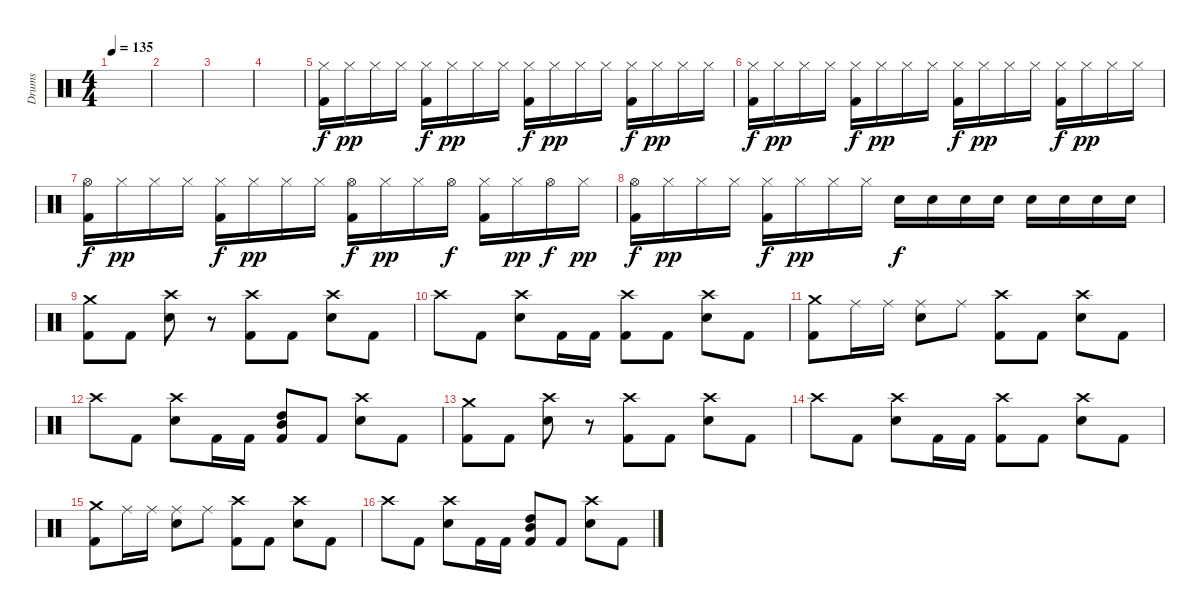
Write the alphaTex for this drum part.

\track ("Drums" "Drums") {instrument percussion}
\staff {score}
\articulation defaults
\ts (4 4)
\tempo 135
\clef neutral
\ks c
|
|
|
|
("Hi-Hat (closed)" "Kick (hit) 2").16 "Hi-Hat (closed)".16{dy pp} "Hi-Hat (closed)".16 "Hi-Hat (closed)".16 ("Hi-Hat (closed)" "Kick (hit) 2").16{dy f} "Hi-Hat (closed)".16{dy pp} "Hi-Hat (closed)".16 "Hi-Hat (closed)".16 ("Hi-Hat (closed)" "Kick (hit) 2").16{dy f} "Hi-Hat (closed)".16{dy pp} "Hi-Hat (closed)".16 "Hi-Hat (closed)".16 ("Hi-Hat (closed)" "Kick (hit) 2").16{dy f} "Hi-Hat (closed)".16{dy pp} "Hi-Hat (closed)".16 "Hi-Hat (closed)".16 |
("Hi-Hat (closed)" "Kick (hit) 2").16{dy f} "Hi-Hat (closed)".16{dy pp} "Hi-Hat (closed)".16 "Hi-Hat (closed)".16 ("Hi-Hat (closed)" "Kick (hit) 2").16{dy f} "Hi-Hat (closed)".16{dy pp} "Hi-Hat (closed)".16 "Hi-Hat (closed)".16 ("Hi-Hat (closed)" "Kick (hit) 2").16{dy f} "Hi-Hat (closed)".16{dy pp} "Hi-Hat (closed)".16 "Hi-Hat (closed)".16 ("Hi-Hat (closed)" "Kick (hit) 2").16{dy f} "Hi-Hat (closed)".16{dy pp} "Hi-Hat (closed)".16 "Hi-Hat (closed)".16 |
("Hi-Hat (open)" "Kick (hit) 2").16{dy f} "Hi-Hat (closed)".16{dy pp} "Hi-Hat (closed)".16 "Hi-Hat (closed)".16 ("Hi-Hat (closed)" "Kick (hit) 2").16{dy f} "Hi-Hat (closed)".16{dy pp} "Hi-Hat (closed)".16 "Hi-Hat (closed)".16 ("Hi-Hat (open)" "Kick (hit) 2").16{dy f} "Hi-Hat (closed)".16{dy pp} "Hi-Hat (closed)".16 "Hi-Hat (open)".16{dy f} ("Hi-Hat (closed)" "Kick (hit) 2").16 "Hi-Hat (closed)".16{dy pp} "Hi-Hat (open)".16{dy f} "Hi-Hat (closed)".16{dy pp} |
("Hi-Hat (open)" "Kick (hit) 2").16{dy f} "Hi-Hat (closed)".16{dy pp} "Hi-Hat (closed)".16 "Hi-Hat (closed)".16 ("Hi-Hat (closed)" "Kick (hit) 2").16{dy f} "Hi-Hat (closed)".16{dy pp} "Hi-Hat (closed)".16 "Hi-Hat (closed)".16 "Electric Snare (hit)".16{dy f} "Electric Snare (hit)".16 "Electric Snare (hit)".16 "Electric Snare (hit)".16 "Electric Snare (hit)".16 "Electric Snare (hit)".16 "Electric Snare (hit)".16 "Electric Snare (hit)".16 |
("Crash medium (hit)" "Kick (hit) 2").8 "Kick (hit) 2".8 ("Crash high (hit)" "Electric Snare (hit)").8 r.8 ("Crash high (hit)" "Kick (hit) 2").8 "Kick (hit) 2".8 ("Crash high (hit)" "Electric Snare (hit)").8 "Kick (hit) 2".8 |
"Crash high (hit)".8 "Kick (hit) 2".8 ("Crash high (hit)" "Electric Snare (hit)").8 "Kick (hit) 2".16 "Kick (hit) 2".16 ("Crash high (hit)" "Kick (hit) 2").8 "Kick (hit) 2".8 ("Crash high (hit)" "Electric Snare (hit)").8 "Kick (hit) 2".8 |
("Crash medium (hit)" "Kick (hit) 2").8 "Ride (middle)".16 "Ride (middle)".16 ("Ride (middle)" "Electric Snare (hit)").8 "Ride (middle)".8 ("Crash high (hit)" "Kick (hit) 2").8 "Kick (hit) 2".8 ("Crash high (hit)" "Electric Snare (hit)").8 "Kick (hit) 2".8 |
"Crash high (hit)".8 "Kick (hit) 2".8 ("Crash high (hit)" "Electric Snare (hit)").8 "Kick (hit) 2".16 "Kick (hit) 2".16 ("Mid Tom (hit)" "High Tom (hit)" "Kick (hit) 2").8 "Kick (hit) 2".8 ("Crash high (hit)" "Electric Snare (hit)").8 "Kick (hit) 2".8 |
("Crash medium (hit)" "Kick (hit) 2").8 "Kick (hit) 2".8 ("Crash high (hit)" "Electric Snare (hit)").8 r.8 ("Crash high (hit)" "Kick (hit) 2").8 "Kick (hit) 2".8 ("Crash high (hit)" "Electric Snare (hit)").8 "Kick (hit) 2".8 |
"Crash high (hit)".8 "Kick (hit) 2".8 ("Crash high (hit)" "Electric Snare (hit)").8 "Kick (hit) 2".16 "Kick (hit) 2".16 ("Crash high (hit)" "Kick (hit) 2").8 "Kick (hit) 2".8 ("Crash high (hit)" "Electric Snare (hit)").8 "Kick (hit) 2".8 |
("Crash medium (hit)" "Kick (hit) 2").8 "Ride (middle)".16 "Ride (middle)".16 ("Ride (middle)" "Electric Snare (hit)").8 "Ride (middle)".8 ("Crash high (hit)" "Kick (hit) 2").8 "Kick (hit) 2".8 ("Crash high (hit)" "Electric Snare (hit)").8 "Kick (hit) 2".8 |
"Crash high (hit)".8 "Kick (hit) 2".8 ("Crash high (hit)" "Electric Snare (hit)").8 "Kick (hit) 2".16 "Kick (hit) 2".16 ("Mid Tom (hit)" "High Tom (hit)" "Kick (hit) 2").8 "Kick (hit) 2".8 ("Crash high (hit)" "Electric Snare (hit)").8 "Kick (hit) 2".8
